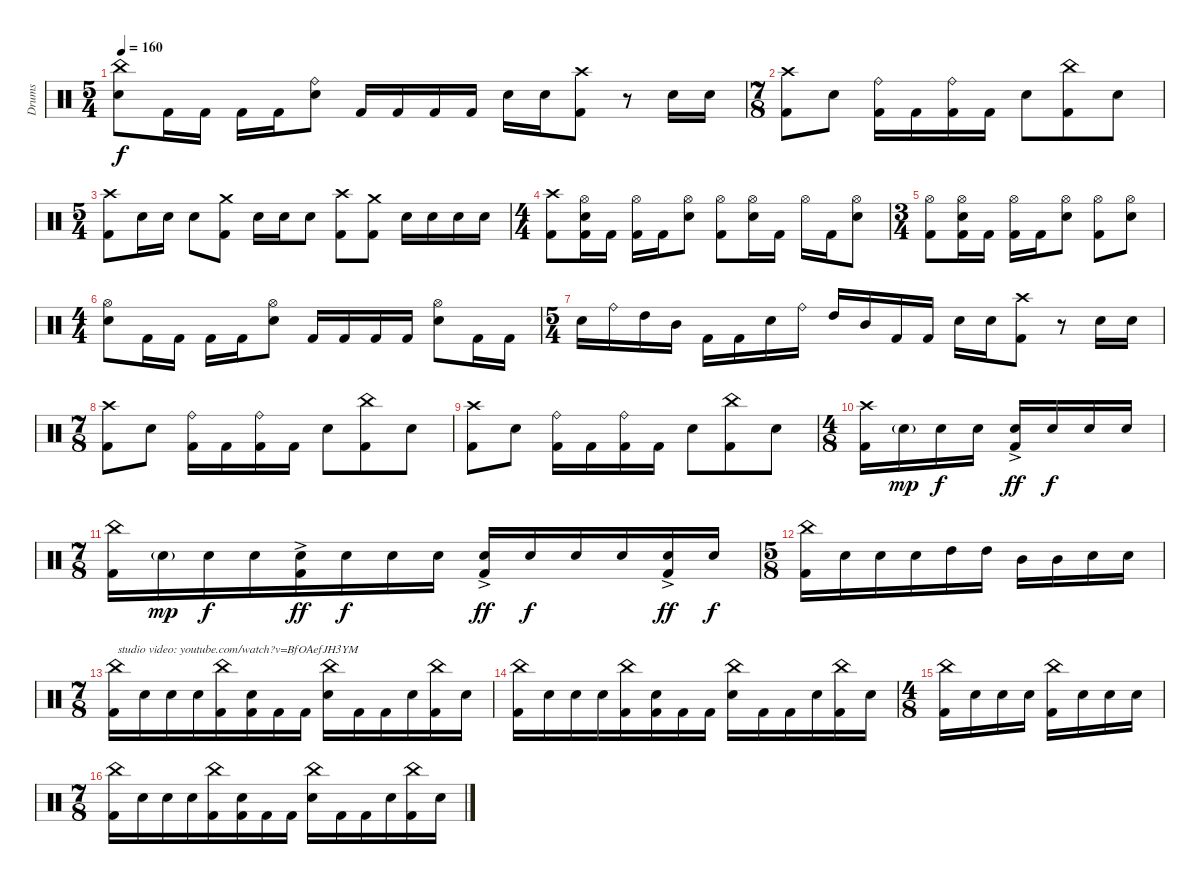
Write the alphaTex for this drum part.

\track ("Drums" "Drums") {instrument percussion}
\staff {score}
\articulation defaults
\ts (5 4)
\tempo 160
\clef neutral
\ks c
("China (hit)" "Electric Snare (hit)").8{dy f} "Kick (hit) 2".16 "Kick (hit) 2".16 "Kick (hit) 2".16 "Kick (hit) 2".16 ("Ride (bell)" "Electric Snare (hit)").8 "Kick (hit) 2".16 "Kick (hit) 2".16 "Kick (hit) 2".16 "Kick (hit) 2".16 "Electric Snare (hit)".16 "Electric Snare (hit)".16 ("Crash high (hit)" "Kick (hit) 2").8 r.8 "Electric Snare (hit)".16 "Electric Snare (hit)".16 |
\ts (7 8)
("Crash high (hit)" "Kick (hit) 2").8{beam merge} "Electric Snare (hit)".8{beam split} ("Ride (bell)" "Kick (hit) 2").16 "Kick (hit) 2".16{beam merge} ("Ride (bell)" "Kick (hit) 2").16 "Kick (hit) 2".16{beam split} "Electric Snare (hit)".8{beam merge} ("China (hit)" "Kick (hit) 2").8 "Electric Snare (hit)".8 |
\ts (5 4)
("Crash high (hit)" "Kick (hit) 2").8 "Electric Snare (hit)".16 "Electric Snare (hit)".16 "Electric Snare (hit)".8 ("Crash medium (hit)" "Kick (hit) 2").8 "Electric Snare (hit)".16 "Electric Snare (hit)".16 "Electric Snare (hit)".8 ("Crash high (hit)" "Kick (hit) 2").8 ("Crash medium (hit)" "Kick (hit) 2").8 "Electric Snare (hit)".16 "Electric Snare (hit)".16 "Electric Snare (hit)".16 "Electric Snare (hit)".16 |
\ts (4 4)
("Crash high (hit)" "Kick (hit) 2").8 ("Hi-Hat (open)" "Electric Snare (hit)" "Kick (hit) 2").16 "Kick (hit) 2".16 ("Hi-Hat (open)" "Kick (hit) 2").16 "Kick (hit) 2".16 ("Hi-Hat (open)" "Electric Snare (hit)").8 ("Hi-Hat (open)" "Kick (hit) 2").8 ("Hi-Hat (open)" "Electric Snare (hit)").16 "Kick (hit) 2".16 "Hi-Hat (open)".16 "Kick (hit) 2".16 ("Hi-Hat (open)" "Electric Snare (hit)").8 |
\ts (3 4)
("Hi-Hat (open)" "Kick (hit) 2").8 ("Hi-Hat (open)" "Electric Snare (hit)" "Kick (hit) 2").16 "Kick (hit) 2".16 ("Hi-Hat (open)" "Kick (hit) 2").16 "Kick (hit) 2".16 ("Hi-Hat (open)" "Electric Snare (hit)").8 ("Hi-Hat (open)" "Kick (hit) 2").8 ("Hi-Hat (open)" "Electric Snare (hit)").8 |
\ts (4 4)
("Hi-Hat (open)" "Electric Snare (hit)").8 "Kick (hit) 2".16 "Kick (hit) 2".16 "Kick (hit) 2".16 "Kick (hit) 2".16 ("Hi-Hat (open)" "Electric Snare (hit)").8 "Kick (hit) 2".16 "Kick (hit) 2".16 "Kick (hit) 2".16 "Kick (hit) 2".16 ("Hi-Hat (open)" "Electric Snare (hit)").8 "Kick (hit) 2".16 "Kick (hit) 2".16 |
\ts (5 4)
"Electric Snare (hit)".16 "Ride (bell)".16 "High Tom (hit)".16 "Mid Tom (hit)".16 "Kick (hit) 2".16 "Kick (hit) 2".16 "Electric Snare (hit)".16 "Ride (bell)".16 "High Tom (hit)".16 "Mid Tom (hit)".16 "Kick (hit) 2".16 "Kick (hit) 2".16 "Electric Snare (hit)".16 "Electric Snare (hit)".16 ("Crash high (hit)" "Kick (hit) 2").8 r.8 "Electric Snare (hit)".16 "Electric Snare (hit)".16 |
\ts (7 8)
("Crash high (hit)" "Kick (hit) 2").8{beam merge} "Electric Snare (hit)".8{beam split} ("Ride (bell)" "Kick (hit) 2").16 "Kick (hit) 2".16{beam merge} ("Ride (bell)" "Kick (hit) 2").16 "Kick (hit) 2".16{beam split} "Electric Snare (hit)".8{beam merge} ("China (hit)" "Kick (hit) 2").8{beam merge} "Electric Snare (hit)".8 |
("Crash high (hit)" "Kick (hit) 2").8{beam merge} "Electric Snare (hit)".8{beam split} ("Ride (bell)" "Kick (hit) 2").16 "Kick (hit) 2".16{beam merge} ("Ride (bell)" "Kick (hit) 2").16 "Kick (hit) 2".16{beam split} "Electric Snare (hit)".8{beam merge} ("China (hit)" "Kick (hit) 2").8 "Electric Snare (hit)".8 |
\ts (4 8)
("Crash high (hit)" "Kick (hit) 2").16 "Electric Snare (hit)"{g}.16{dy mp} "Electric Snare (hit)".16{dy f} "Electric Snare (hit)".16 ("Electric Snare (hit)"{ac} "Kick (hit) 2").16{dy ff} "Electric Snare (hit)".16{dy f} "Electric Snare (hit)".16 "Electric Snare (hit)".16 |
\ts (7 8)
("China (hit)" "Kick (hit) 2").16 "Electric Snare (hit)"{g}.16{dy mp} "Electric Snare (hit)".16{dy f} "Electric Snare (hit)".16 ("Electric Snare (hit)"{ac} "Kick (hit) 2").16{dy ff} "Electric Snare (hit)".16{dy f} "Electric Snare (hit)".16 "Electric Snare (hit)".16 ("Electric Snare (hit)"{ac} "Kick (hit) 2").16{dy ff} "Electric Snare (hit)".16{dy f} "Electric Snare (hit)".16 "Electric Snare (hit)".16 ("Electric Snare (hit)"{ac} "Kick (hit) 2").16{dy ff} "Electric Snare (hit)".16{dy f} |
\ts (5 8)
("China (hit)" "Kick (hit) 2").16 "Electric Snare (hit)".16 "Electric Snare (hit)".16 "Electric Snare (hit)".16 "High Tom (hit)".16 "High Tom (hit)".16 "Mid Tom (hit)".16 "Mid Tom (hit)".16 "Electric Snare (hit)".16 "Electric Snare (hit)".16 |
\ts (7 8)
("China (hit)" "Kick (hit) 2").16{txt "studio video: youtube.com/watch?v=BfOAefJH3YM"} "Electric Snare (hit)".16 "Electric Snare (hit)".16 "Electric Snare (hit)".16 ("China (hit)" "Kick (hit) 2").16 ("Electric Snare (hit)" "Kick (hit) 2").16 "Kick (hit) 2".16 "Kick (hit) 2".16 ("China (hit)" "Electric Snare (hit)").16 "Kick (hit) 2".16 "Kick (hit) 2".16 "Electric Snare (hit)".16 ("China (hit)" "Kick (hit) 2").16 "Electric Snare (hit)".16 |
("China (hit)" "Kick (hit) 2").16 "Electric Snare (hit)".16 "Electric Snare (hit)".16 "Electric Snare (hit)".16 ("China (hit)" "Kick (hit) 2").16 ("Electric Snare (hit)" "Kick (hit) 2").16 "Kick (hit) 2".16 "Kick (hit) 2".16 ("China (hit)" "Electric Snare (hit)").16 "Kick (hit) 2".16 "Kick (hit) 2".16 "Electric Snare (hit)".16 ("China (hit)" "Kick (hit) 2").16 "Electric Snare (hit)".16 |
\ts (4 8)
("China (hit)" "Kick (hit) 2").16 "Electric Snare (hit)".16 "Electric Snare (hit)".16 "Electric Snare (hit)".16 ("China (hit)" "Kick (hit) 2").16 "Electric Snare (hit)".16 "Electric Snare (hit)".16 "Electric Snare (hit)".16 |
\ts (7 8)
("China (hit)" "Kick (hit) 2").16 "Electric Snare (hit)".16 "Electric Snare (hit)".16 "Electric Snare (hit)".16 ("China (hit)" "Kick (hit) 2").16 ("Electric Snare (hit)" "Kick (hit) 2").16 "Kick (hit) 2".16 "Kick (hit) 2".16 ("China (hit)" "Electric Snare (hit)").16 "Kick (hit) 2".16 "Kick (hit) 2".16 "Electric Snare (hit)".16 ("China (hit)" "Kick (hit) 2").16 "Electric Snare (hit)".16
